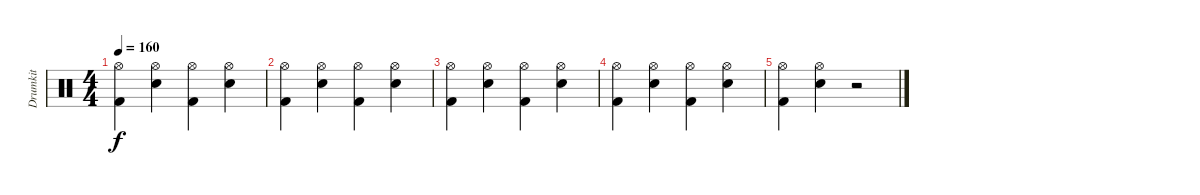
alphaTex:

\track ("Drumkit" "Drumkit") {instrument percussion}
\staff {score}
\articulation defaults
\ts (4 4)
\tempo 160
\clef neutral
\ks c
("Hi-Hat (open)" "Kick (hit) 2").4{dy f} ("Hi-Hat (open)" "Electric Snare (hit)").4 ("Hi-Hat (open)" "Kick (hit) 2").4 ("Hi-Hat (open)" "Electric Snare (hit)").4 |
("Hi-Hat (open)" "Kick (hit) 2").4 ("Hi-Hat (open)" "Electric Snare (hit)").4 ("Hi-Hat (open)" "Kick (hit) 2").4 ("Hi-Hat (open)" "Electric Snare (hit)").4 |
("Hi-Hat (open)" "Kick (hit) 2").4 ("Hi-Hat (open)" "Electric Snare (hit)").4 ("Hi-Hat (open)" "Kick (hit) 2").4 ("Hi-Hat (open)" "Electric Snare (hit)").4 |
("Hi-Hat (open)" "Kick (hit) 2").4 ("Hi-Hat (open)" "Electric Snare (hit)").4 ("Hi-Hat (open)" "Kick (hit) 2").4 ("Hi-Hat (open)" "Electric Snare (hit)").4 |
("Hi-Hat (open)" "Kick (hit) 2").4 ("Hi-Hat (open)" "Electric Snare (hit)").4 r.2
